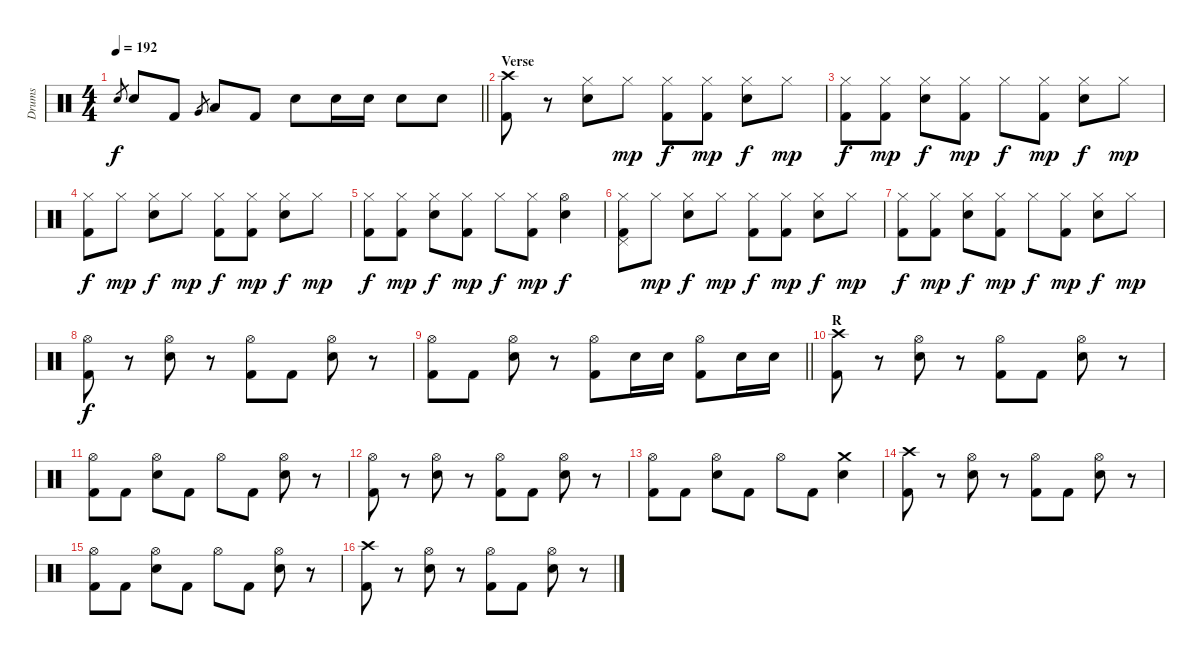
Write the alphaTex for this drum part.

\track ("Drums" "Drums") {instrument percussion}
\staff {score}
\articulation defaults
\ts (4 4)
\tempo 192
\clef neutral
\barLineRight lightlight
\ks c "Snare (hit) 2".8{gr dy f} "Snare (hit) 2".8 "Kick (hit) 2".8 "Very Low Tom (hit)".8{gr} "Low Tom (hit)".8 "Kick (hit) 2".8 "Snare (hit) 2".8 "Snare (hit) 2".16 "Snare (hit) 2".16 "Snare (hit) 2".8 "Snare (hit) 2".8
|
\section ("" "Verse")
("Crash high (hit)" "Kick (hit) 2").8 r.8 ("Hi-Hat (closed)" "Snare (hit) 2").8 "Hi-Hat (closed)".8{dy mp} ("Hi-Hat (closed)" "Kick (hit) 2").8{dy f} ("Hi-Hat (closed)" "Kick (hit) 2").8{dy mp} ("Hi-Hat (closed)" "Snare (hit) 2").8{dy f} "Hi-Hat (closed)".8{dy mp} |
("Hi-Hat (closed)" "Kick (hit) 2").8{dy f} ("Hi-Hat (closed)" "Kick (hit) 2").8{dy mp} ("Hi-Hat (closed)" "Snare (hit) 2").8{dy f} ("Hi-Hat (closed)" "Kick (hit) 2").8{dy mp} "Hi-Hat (closed)".8{dy f} ("Hi-Hat (closed)" "Kick (hit) 2").8{dy mp} ("Hi-Hat (closed)" "Snare (hit) 2").8{dy f} "Hi-Hat (closed)".8{dy mp} |
("Hi-Hat (closed)" "Kick (hit) 2").8{dy f} "Hi-Hat (closed)".8{dy mp} ("Hi-Hat (closed)" "Snare (hit) 2").8{dy f} "Hi-Hat (closed)".8{dy mp} ("Hi-Hat (closed)" "Kick (hit) 2").8{dy f} ("Hi-Hat (closed)" "Kick (hit) 2").8{dy mp} ("Hi-Hat (closed)" "Snare (hit) 2").8{dy f} "Hi-Hat (closed)".8{dy mp} |
("Hi-Hat (closed)" "Kick (hit) 2").8{dy f} ("Hi-Hat (closed)" "Kick (hit) 2").8{dy mp} ("Hi-Hat (closed)" "Snare (hit) 2").8{dy f} ("Hi-Hat (closed)" "Kick (hit) 2").8{dy mp} "Hi-Hat (closed)".8{dy f} ("Hi-Hat (closed)" "Kick (hit) 2").8{dy mp} ("Hi-Hat (open)" "Snare (hit) 2").4{dy f} |
("Hi-Hat (closed)" "Pedal Hi-Hat (hit)" "Kick (hit) 2").8 "Hi-Hat (closed)".8{dy mp} ("Hi-Hat (closed)" "Snare (hit) 2").8{dy f} "Hi-Hat (closed)".8{dy mp} ("Hi-Hat (closed)" "Kick (hit) 2").8{dy f} ("Hi-Hat (closed)" "Kick (hit) 2").8{dy mp} ("Hi-Hat (closed)" "Snare (hit) 2").8{dy f} "Hi-Hat (closed)".8{dy mp} |
("Hi-Hat (closed)" "Kick (hit) 2").8{dy f} ("Hi-Hat (closed)" "Kick (hit) 2").8{dy mp} ("Hi-Hat (closed)" "Snare (hit) 2").8{dy f} ("Hi-Hat (closed)" "Kick (hit) 2").8{dy mp} "Hi-Hat (closed)".8{dy f} ("Hi-Hat (closed)" "Kick (hit) 2").8{dy mp} ("Hi-Hat (closed)" "Snare (hit) 2").8{dy f} "Hi-Hat (closed)".8{dy mp} |
("Hi-Hat (open)" "Kick (hit) 2").8{dy f} r.8 ("Hi-Hat (open)" "Snare (hit) 2").8 r.8 ("Hi-Hat (open)" "Kick (hit) 2").8 "Kick (hit) 2".8 ("Hi-Hat (open)" "Snare (hit) 2").8 r.8 |
\barLineRight lightlight
("Hi-Hat (open)" "Kick (hit) 2").8 "Kick (hit) 2".8 ("Hi-Hat (open)" "Snare (hit) 2").8 r.8 ("Hi-Hat (open)" "Kick (hit) 2").8 "Snare (hit) 2".16 "Snare (hit) 2".16 ("Hi-Hat (open)" "Kick (hit) 2").8 "Snare (hit) 2".16 "Snare (hit) 2".16 |
\section ("" "R")
("Crash high (hit)" "Kick (hit) 2").8 r.8 ("Hi-Hat (open)" "Snare (hit) 2").8 r.8 ("Hi-Hat (open)" "Kick (hit) 2").8 "Kick (hit) 2".8 ("Hi-Hat (open)" "Snare (hit) 2").8 r.8 |
("Hi-Hat (open)" "Kick (hit) 2").8 "Kick (hit) 2".8 ("Hi-Hat (open)" "Snare (hit) 2").8 "Kick (hit) 2".8 "Hi-Hat (open)".8 "Kick (hit) 2".8 ("Hi-Hat (open)" "Snare (hit) 2").8 r.8 |
("Hi-Hat (open)" "Kick (hit) 2").8 r.8 ("Hi-Hat (open)" "Snare (hit) 2").8 r.8 ("Hi-Hat (open)" "Kick (hit) 2").8 "Kick (hit) 2".8 ("Hi-Hat (open)" "Snare (hit) 2").8 r.8 |
("Hi-Hat (open)" "Kick (hit) 2").8 "Kick (hit) 2".8 ("Hi-Hat (open)" "Snare (hit) 2").8 "Kick (hit) 2".8 "Hi-Hat (open)".8 "Kick (hit) 2".8 ("Crash medium (hit)" "Snare (hit) 2").4 |
("Crash high (hit)" "Kick (hit) 2").8 r.8 ("Hi-Hat (open)" "Snare (hit) 2").8 r.8 ("Hi-Hat (open)" "Kick (hit) 2").8 "Kick (hit) 2".8 ("Hi-Hat (open)" "Snare (hit) 2").8 r.8 |
("Hi-Hat (open)" "Kick (hit) 2").8 "Kick (hit) 2".8 ("Hi-Hat (open)" "Snare (hit) 2").8 "Kick (hit) 2".8 "Hi-Hat (open)".8 "Kick (hit) 2".8 ("Hi-Hat (open)" "Snare (hit) 2").8 r.8 |
("Crash high (hit)" "Kick (hit) 2").8 r.8 ("Hi-Hat (open)" "Snare (hit) 2").8 r.8 ("Hi-Hat (open)" "Kick (hit) 2").8 "Kick (hit) 2".8 ("Hi-Hat (open)" "Snare (hit) 2").8 r.8
